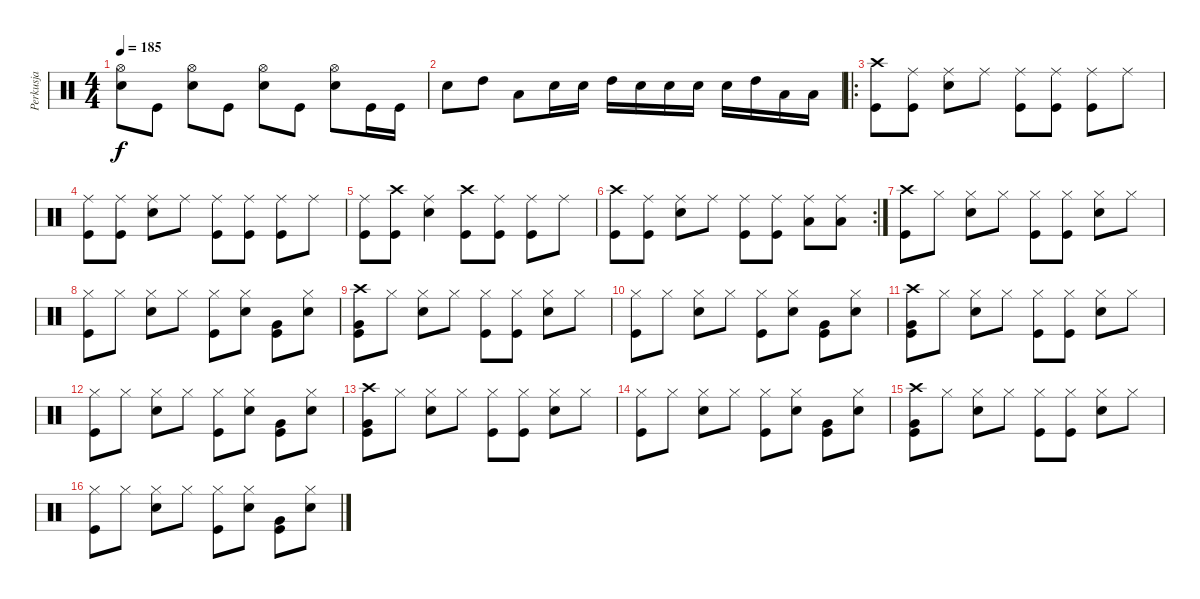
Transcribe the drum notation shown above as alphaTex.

\track ("Perkusja" "Perkusja") {instrument percussion}
\staff {score}
\articulation defaults
\ts (4 4)
\tempo 185
\clef neutral
\ks c
("Hi-Hat (open)" "Snare (hit) 2").8{dy f} "Kick (hit)".8 ("Hi-Hat (open)" "Snare (hit) 2").8 "Kick (hit)".8 ("Hi-Hat (open)" "Snare (hit) 2").8 "Kick (hit)".8 ("Hi-Hat (open)" "Snare (hit) 2").8 "Kick (hit)".16 "Kick (hit)".16 |
"Snare (hit) 2".8 "High Tom (hit)".8 "Low Floor Tom (hit)".8 "Snare (hit) 2".16 "Snare (hit) 2".16 "High Tom (hit)".16 "Snare (hit) 2".16 "Snare (hit) 2".16 "Snare (hit) 2".16 "Snare (hit) 2".16 "High Tom (hit)".16 "Low Floor Tom (hit)".16 "Low Floor Tom (hit)".16 |
\ro
("Crash high (hit)" "Kick (hit)").8 ("Ride (middle)" "Kick (hit)").8 ("Ride (middle)" "Snare (hit) 2").8 "Ride (middle)".8 ("Ride (middle)" "Kick (hit)").8 ("Ride (middle)" "Kick (hit)").8 ("Ride (middle)" "Kick (hit)").8 "Ride (middle)".8 |
("Ride (middle)" "Kick (hit)").8 ("Ride (middle)" "Kick (hit)").8 ("Ride (middle)" "Snare (hit) 2").8 "Ride (middle)".8 ("Ride (middle)" "Kick (hit)").8 ("Ride (middle)" "Kick (hit)").8 ("Ride (middle)" "Kick (hit)").8 "Ride (middle)".8 |
("Ride (middle)" "Kick (hit)").8 ("Crash high (hit)" "Kick (hit)").8 ("Ride (middle)" "Snare (hit) 2").4 ("Crash high (hit)" "Kick (hit)").8 ("Ride (middle)" "Kick (hit)").8 ("Ride (middle)" "Kick (hit)").8 "Ride (middle)".8 |
\rc 2
("Crash high (hit)" "Kick (hit)").8 ("Ride (middle)" "Kick (hit)").8 ("Ride (middle)" "Snare (hit) 2").8 "Ride (middle)".8 ("Ride (middle)" "Kick (hit)").8 ("Ride (middle)" "Kick (hit)").8 ("Ride (middle)" "Low Floor Tom (hit)").8 ("Ride (middle)" "Low Floor Tom (hit)").8 |
("Crash high (hit)" "Kick (hit)").8 "Hi-Hat (closed)".8 ("Hi-Hat (closed)" "Snare (hit) 2").8 "Hi-Hat (closed)".8 ("Hi-Hat (closed)" "Kick (hit)").8 ("Hi-Hat (closed)" "Kick (hit)").8 ("Hi-Hat (closed)" "Snare (hit) 2").8 "Hi-Hat (closed)".8 |
("Hi-Hat (closed)" "Kick (hit)").8 "Hi-Hat (closed)".8 ("Hi-Hat (closed)" "Snare (hit) 2").8 "Hi-Hat (closed)".8 ("Hi-Hat (closed)" "Kick (hit)").8 ("Hi-Hat (closed)" "Snare (hit) 2").8 ("Very Low Tom (hit)" "Kick (hit)").8 ("Hi-Hat (closed)" "Snare (hit) 2").8 |
("Crash high (hit)" "Very Low Tom (hit)" "Kick (hit)").8 "Hi-Hat (closed)".8 ("Hi-Hat (closed)" "Snare (hit) 2").8 "Hi-Hat (closed)".8 ("Hi-Hat (closed)" "Kick (hit)").8 ("Hi-Hat (closed)" "Kick (hit)").8 ("Hi-Hat (closed)" "Snare (hit) 2").8 "Hi-Hat (closed)".8 |
("Hi-Hat (closed)" "Kick (hit)").8 "Hi-Hat (closed)".8 ("Hi-Hat (closed)" "Snare (hit) 2").8 "Hi-Hat (closed)".8 ("Hi-Hat (closed)" "Kick (hit)").8 ("Hi-Hat (closed)" "Snare (hit) 2").8 ("Very Low Tom (hit)" "Kick (hit)").8 ("Hi-Hat (closed)" "Snare (hit) 2").8 |
("Crash high (hit)" "Very Low Tom (hit)" "Kick (hit)").8 "Hi-Hat (closed)".8 ("Hi-Hat (closed)" "Snare (hit) 2").8 "Hi-Hat (closed)".8 ("Hi-Hat (closed)" "Kick (hit)").8 ("Hi-Hat (closed)" "Kick (hit)").8 ("Hi-Hat (closed)" "Snare (hit) 2").8 "Hi-Hat (closed)".8 |
("Hi-Hat (closed)" "Kick (hit)").8 "Hi-Hat (closed)".8 ("Hi-Hat (closed)" "Snare (hit) 2").8 "Hi-Hat (closed)".8 ("Hi-Hat (closed)" "Kick (hit)").8 ("Hi-Hat (closed)" "Snare (hit) 2").8 ("Very Low Tom (hit)" "Kick (hit)").8 ("Hi-Hat (closed)" "Snare (hit) 2").8 |
("Crash high (hit)" "Very Low Tom (hit)" "Kick (hit)").8 "Hi-Hat (closed)".8 ("Hi-Hat (closed)" "Snare (hit) 2").8 "Hi-Hat (closed)".8 ("Hi-Hat (closed)" "Kick (hit)").8 ("Hi-Hat (closed)" "Kick (hit)").8 ("Hi-Hat (closed)" "Snare (hit) 2").8 "Hi-Hat (closed)".8 |
("Hi-Hat (closed)" "Kick (hit)").8 "Hi-Hat (closed)".8 ("Hi-Hat (closed)" "Snare (hit) 2").8 "Hi-Hat (closed)".8 ("Hi-Hat (closed)" "Kick (hit)").8 ("Hi-Hat (closed)" "Snare (hit) 2").8 ("Very Low Tom (hit)" "Kick (hit)").8 ("Hi-Hat (closed)" "Snare (hit) 2").8 |
("Crash high (hit)" "Very Low Tom (hit)" "Kick (hit)").8 "Hi-Hat (closed)".8 ("Hi-Hat (closed)" "Snare (hit) 2").8 "Hi-Hat (closed)".8 ("Hi-Hat (closed)" "Kick (hit)").8 ("Hi-Hat (closed)" "Kick (hit)").8 ("Hi-Hat (closed)" "Snare (hit) 2").8 "Hi-Hat (closed)".8 |
("Hi-Hat (closed)" "Kick (hit)").8 "Hi-Hat (closed)".8 ("Hi-Hat (closed)" "Snare (hit) 2").8 "Hi-Hat (closed)".8 ("Hi-Hat (closed)" "Kick (hit)").8 ("Hi-Hat (closed)" "Snare (hit) 2").8 ("Very Low Tom (hit)" "Kick (hit)").8 ("Hi-Hat (closed)" "Snare (hit) 2").8
